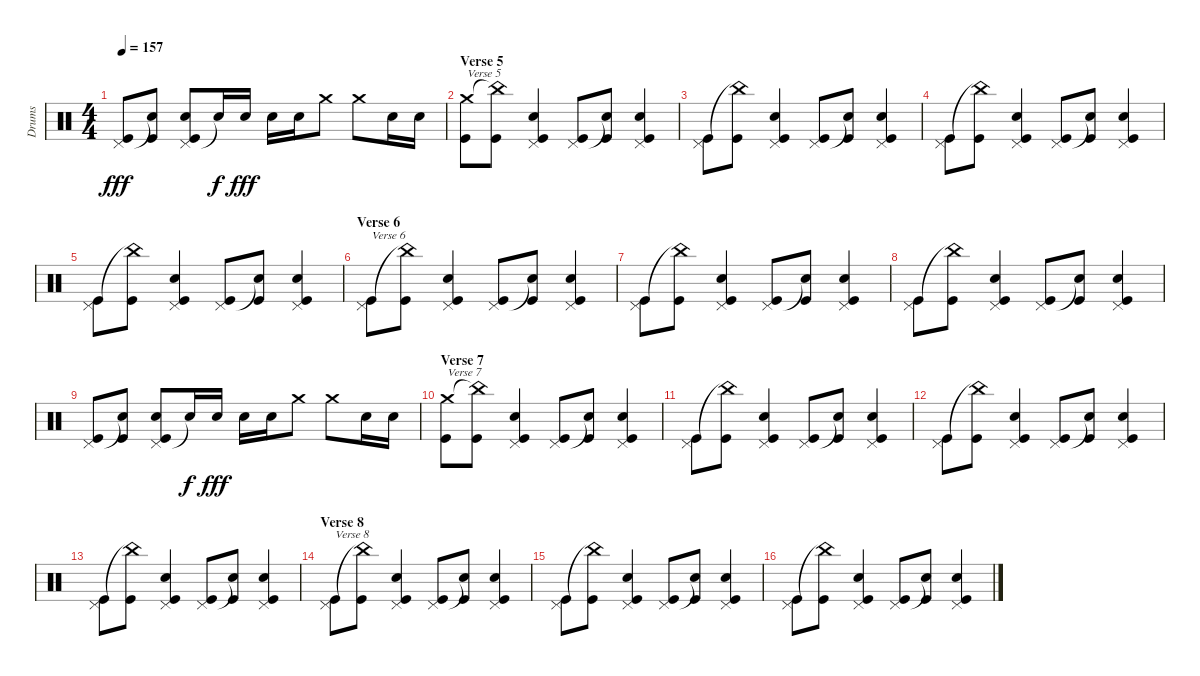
\track ("Drums" "Drums") {instrument percussion}
\staff {score}
\articulation defaults
\ts (4 4)
\tempo 157
\clef neutral
\ks c
("Pedal Hi-Hat (hit)" "Kick (hit)").8{dy fff} ("Snare (hit)"{t} "Kick (hit)").8 ("Pedal Hi-Hat (hit)" "Electric Snare (hit)" "Kick (hit)").8 "Snare (hit)"{t}.16{dy f} "Electric Snare (hit)".16{dy fff} "Electric Snare (hit)".16 "Electric Snare (hit)".16 "Crash medium (hit)".8 "Crash medium (hit)".8 "Electric Snare (hit)".16 "Electric Snare (hit)".16 |
\section ("" "Verse 5")
("Crash medium (hit)" "Kick (hit)").8{txt "Verse 5"} ("China (hit)"{t} "Kick (hit)").8 ("Pedal Hi-Hat (hit)" "Electric Snare (hit)" "Kick (hit)").4 ("Pedal Hi-Hat (hit)" "Kick (hit)").8 ("Snare (hit)"{t} "Kick (hit)").8 ("Pedal Hi-Hat (hit)" "Electric Snare (hit)" "Kick (hit)").4 |
("Pedal Hi-Hat (hit)" "Kick (hit)").8 ("China (hit)"{t} "Kick (hit)").8 ("Pedal Hi-Hat (hit)" "Electric Snare (hit)" "Kick (hit)").4 ("Pedal Hi-Hat (hit)" "Kick (hit)").8 ("Snare (hit)"{t} "Kick (hit)").8 ("Pedal Hi-Hat (hit)" "Electric Snare (hit)" "Kick (hit)").4 |
("Pedal Hi-Hat (hit)" "Kick (hit)").8 ("China (hit)"{t} "Kick (hit)").8 ("Pedal Hi-Hat (hit)" "Electric Snare (hit)" "Kick (hit)").4 ("Pedal Hi-Hat (hit)" "Kick (hit)").8 ("Snare (hit)"{t} "Kick (hit)").8 ("Pedal Hi-Hat (hit)" "Electric Snare (hit)" "Kick (hit)").4 |
("Pedal Hi-Hat (hit)" "Kick (hit)").8 ("China (hit)"{t} "Kick (hit)").8 ("Pedal Hi-Hat (hit)" "Electric Snare (hit)" "Kick (hit)").4 ("Pedal Hi-Hat (hit)" "Kick (hit)").8 ("Snare (hit)"{t} "Kick (hit)").8 ("Pedal Hi-Hat (hit)" "Electric Snare (hit)" "Kick (hit)").4 |
\section ("" "Verse 6")
("Pedal Hi-Hat (hit)" "Kick (hit)").8{txt "Verse 6"} ("China (hit)"{t} "Kick (hit)").8 ("Pedal Hi-Hat (hit)" "Electric Snare (hit)" "Kick (hit)").4 ("Pedal Hi-Hat (hit)" "Kick (hit)").8 ("Snare (hit)"{t} "Kick (hit)").8 ("Pedal Hi-Hat (hit)" "Electric Snare (hit)" "Kick (hit)").4 |
("Pedal Hi-Hat (hit)" "Kick (hit)").8 ("China (hit)"{t} "Kick (hit)").8 ("Pedal Hi-Hat (hit)" "Electric Snare (hit)" "Kick (hit)").4 ("Pedal Hi-Hat (hit)" "Kick (hit)").8 ("Snare (hit)"{t} "Kick (hit)").8 ("Pedal Hi-Hat (hit)" "Electric Snare (hit)" "Kick (hit)").4 |
("Pedal Hi-Hat (hit)" "Kick (hit)").8 ("China (hit)"{t} "Kick (hit)").8 ("Pedal Hi-Hat (hit)" "Electric Snare (hit)" "Kick (hit)").4 ("Pedal Hi-Hat (hit)" "Kick (hit)").8 ("Snare (hit)"{t} "Kick (hit)").8 ("Pedal Hi-Hat (hit)" "Electric Snare (hit)" "Kick (hit)").4 |
("Pedal Hi-Hat (hit)" "Kick (hit)").8 ("Snare (hit)"{t} "Kick (hit)").8 ("Pedal Hi-Hat (hit)" "Electric Snare (hit)" "Kick (hit)").8 "Snare (hit)"{t}.16{dy f} "Electric Snare (hit)".16{dy fff} "Electric Snare (hit)".16 "Electric Snare (hit)".16 "Crash medium (hit)".8 "Crash medium (hit)".8 "Electric Snare (hit)".16 "Electric Snare (hit)".16 |
\section ("" "Verse 7")
("Crash medium (hit)" "Kick (hit)").8{txt "Verse 7"} ("China (hit)"{t} "Kick (hit)").8 ("Pedal Hi-Hat (hit)" "Electric Snare (hit)" "Kick (hit)").4 ("Pedal Hi-Hat (hit)" "Kick (hit)").8 ("Snare (hit)"{t} "Kick (hit)").8 ("Pedal Hi-Hat (hit)" "Electric Snare (hit)" "Kick (hit)").4 |
("Pedal Hi-Hat (hit)" "Kick (hit)").8 ("China (hit)"{t} "Kick (hit)").8 ("Pedal Hi-Hat (hit)" "Electric Snare (hit)" "Kick (hit)").4 ("Pedal Hi-Hat (hit)" "Kick (hit)").8 ("Snare (hit)"{t} "Kick (hit)").8 ("Pedal Hi-Hat (hit)" "Electric Snare (hit)" "Kick (hit)").4 |
("Pedal Hi-Hat (hit)" "Kick (hit)").8 ("China (hit)"{t} "Kick (hit)").8 ("Pedal Hi-Hat (hit)" "Electric Snare (hit)" "Kick (hit)").4 ("Pedal Hi-Hat (hit)" "Kick (hit)").8 ("Snare (hit)"{t} "Kick (hit)").8 ("Pedal Hi-Hat (hit)" "Electric Snare (hit)" "Kick (hit)").4 |
("Pedal Hi-Hat (hit)" "Kick (hit)").8 ("China (hit)"{t} "Kick (hit)").8 ("Pedal Hi-Hat (hit)" "Electric Snare (hit)" "Kick (hit)").4 ("Pedal Hi-Hat (hit)" "Kick (hit)").8 ("Snare (hit)"{t} "Kick (hit)").8 ("Pedal Hi-Hat (hit)" "Electric Snare (hit)" "Kick (hit)").4 |
\section ("" "Verse 8")
("Pedal Hi-Hat (hit)" "Kick (hit)").8{txt "Verse 8"} ("China (hit)"{t} "Kick (hit)").8 ("Pedal Hi-Hat (hit)" "Electric Snare (hit)" "Kick (hit)").4 ("Pedal Hi-Hat (hit)" "Kick (hit)").8 ("Snare (hit)"{t} "Kick (hit)").8 ("Pedal Hi-Hat (hit)" "Electric Snare (hit)" "Kick (hit)").4 |
("Pedal Hi-Hat (hit)" "Kick (hit)").8 ("China (hit)"{t} "Kick (hit)").8 ("Pedal Hi-Hat (hit)" "Electric Snare (hit)" "Kick (hit)").4 ("Pedal Hi-Hat (hit)" "Kick (hit)").8 ("Snare (hit)"{t} "Kick (hit)").8 ("Pedal Hi-Hat (hit)" "Electric Snare (hit)" "Kick (hit)").4 |
("Pedal Hi-Hat (hit)" "Kick (hit)").8 ("China (hit)"{t} "Kick (hit)").8 ("Pedal Hi-Hat (hit)" "Electric Snare (hit)" "Kick (hit)").4 ("Pedal Hi-Hat (hit)" "Kick (hit)").8 ("Snare (hit)"{t} "Kick (hit)").8 ("Pedal Hi-Hat (hit)" "Electric Snare (hit)" "Kick (hit)").4
